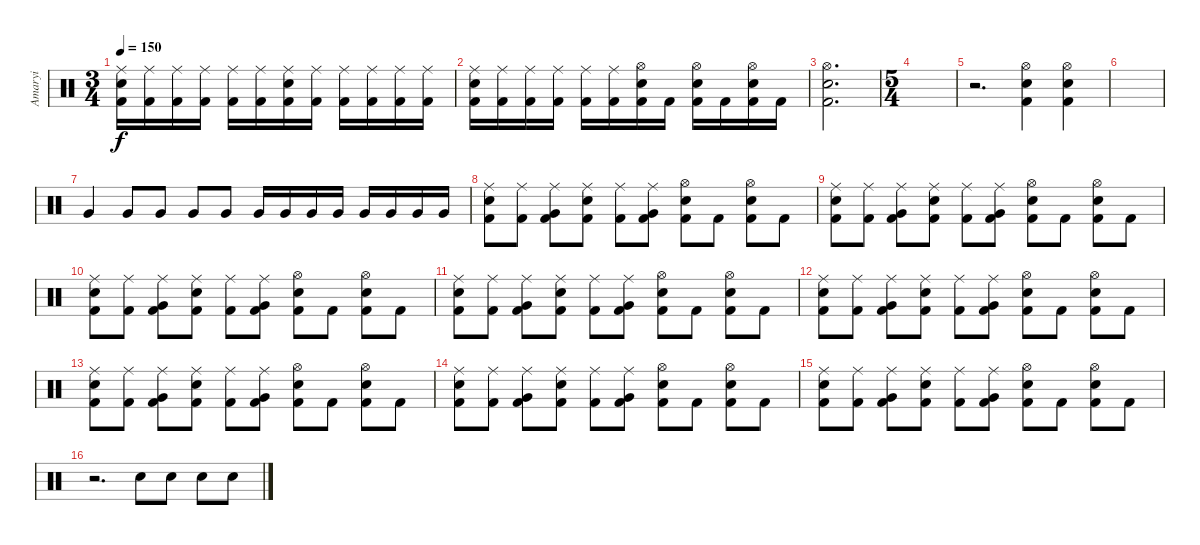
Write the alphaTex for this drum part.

\track ("Amaryi" "Amaryi") {instrument percussion}
\staff {score}
\articulation defaults
\ts (3 4)
\tempo 150
\clef neutral
\ks c
("Ride (middle)" "Snare (hit) 2" "Kick (hit) 2").16{dy f} ("Ride (middle)" "Kick (hit) 2").16 ("Ride (middle)" "Kick (hit) 2").16 ("Ride (middle)" "Kick (hit) 2").16 ("Ride (middle)" "Kick (hit) 2").16 ("Ride (middle)" "Kick (hit) 2").16 ("Ride (middle)" "Snare (hit) 2" "Kick (hit) 2").16 ("Ride (middle)" "Kick (hit) 2").16 ("Ride (middle)" "Kick (hit) 2").16 ("Ride (middle)" "Kick (hit) 2").16 ("Ride (middle)" "Kick (hit) 2").16 ("Ride (middle)" "Kick (hit) 2").16 |
("Ride (middle)" "Snare (hit) 2" "Kick (hit) 2").16 ("Ride (middle)" "Kick (hit) 2").16 ("Ride (middle)" "Kick (hit) 2").16 ("Ride (middle)" "Kick (hit) 2").16 ("Ride (middle)" "Kick (hit) 2").16 ("Ride (middle)" "Kick (hit) 2").16 ("Hi-Hat (open)" "Snare (hit) 2" "Kick (hit) 2").16 "Kick (hit) 2".16 ("Hi-Hat (open)" "Snare (hit) 2" "Kick (hit) 2").16 "Kick (hit) 2".16 ("Hi-Hat (open)" "Snare (hit) 2" "Kick (hit) 2").16 "Kick (hit) 2".16 |
("Hi-Hat (open)" "Snare (hit) 2" "Kick (hit) 2").2{d} |
\ts (5 4)
|
r.2{d} ("Hi-Hat (open)" "Snare (hit) 2" "Kick (hit) 2").4 ("Hi-Hat (open)" "Snare (hit) 2" "Kick (hit) 2").4 |
|
"Very Low Tom (hit)".4 "Very Low Tom (hit)".8 "Very Low Tom (hit)".8 "Very Low Tom (hit)".8 "Very Low Tom (hit)".8 "Very Low Tom (hit)".16 "Very Low Tom (hit)".16 "Very Low Tom (hit)".16 "Very Low Tom (hit)".16 "Very Low Tom (hit)".16 "Very Low Tom (hit)".16 "Very Low Tom (hit)".16 "Very Low Tom (hit)".16 |
("Ride (middle)" "Snare (hit) 2" "Kick (hit) 2").8 ("Ride (middle)" "Kick (hit) 2").8 ("Ride (middle)" "Very Low Tom (hit)" "Kick (hit) 2").8 ("Ride (middle)" "Snare (hit) 2" "Kick (hit) 2").8 ("Ride (middle)" "Kick (hit) 2").8 ("Ride (middle)" "Very Low Tom (hit)" "Kick (hit) 2").8 ("Hi-Hat (open)" "Snare (hit) 2" "Kick (hit) 2").8 "Kick (hit) 2".8 ("Hi-Hat (open)" "Snare (hit) 2" "Kick (hit) 2").8 "Kick (hit) 2".8 |
("Ride (middle)" "Snare (hit) 2" "Kick (hit) 2").8 ("Ride (middle)" "Kick (hit) 2").8 ("Ride (middle)" "Very Low Tom (hit)" "Kick (hit) 2").8 ("Ride (middle)" "Snare (hit) 2" "Kick (hit) 2").8 ("Ride (middle)" "Kick (hit) 2").8 ("Ride (middle)" "Very Low Tom (hit)" "Kick (hit) 2").8 ("Hi-Hat (open)" "Snare (hit) 2" "Kick (hit) 2").8 "Kick (hit) 2".8 ("Hi-Hat (open)" "Snare (hit) 2" "Kick (hit) 2").8 "Kick (hit) 2".8 |
("Ride (middle)" "Snare (hit) 2" "Kick (hit) 2").8 ("Ride (middle)" "Kick (hit) 2").8 ("Ride (middle)" "Very Low Tom (hit)" "Kick (hit) 2").8 ("Ride (middle)" "Snare (hit) 2" "Kick (hit) 2").8 ("Ride (middle)" "Kick (hit) 2").8 ("Ride (middle)" "Very Low Tom (hit)" "Kick (hit) 2").8 ("Hi-Hat (open)" "Snare (hit) 2" "Kick (hit) 2").8 "Kick (hit) 2".8 ("Hi-Hat (open)" "Snare (hit) 2" "Kick (hit) 2").8 "Kick (hit) 2".8 |
("Ride (middle)" "Snare (hit) 2" "Kick (hit) 2").8 ("Ride (middle)" "Kick (hit) 2").8 ("Ride (middle)" "Very Low Tom (hit)" "Kick (hit) 2").8 ("Ride (middle)" "Snare (hit) 2" "Kick (hit) 2").8 ("Ride (middle)" "Kick (hit) 2").8 ("Ride (middle)" "Very Low Tom (hit)" "Kick (hit) 2").8 ("Hi-Hat (open)" "Snare (hit) 2" "Kick (hit) 2").8 "Kick (hit) 2".8 ("Hi-Hat (open)" "Snare (hit) 2" "Kick (hit) 2").8 "Kick (hit) 2".8 |
("Ride (middle)" "Snare (hit) 2" "Kick (hit) 2").8 ("Ride (middle)" "Kick (hit) 2").8 ("Ride (middle)" "Very Low Tom (hit)" "Kick (hit) 2").8 ("Ride (middle)" "Snare (hit) 2" "Kick (hit) 2").8 ("Ride (middle)" "Kick (hit) 2").8 ("Ride (middle)" "Very Low Tom (hit)" "Kick (hit) 2").8 ("Hi-Hat (open)" "Snare (hit) 2" "Kick (hit) 2").8 "Kick (hit) 2".8 ("Hi-Hat (open)" "Snare (hit) 2" "Kick (hit) 2").8 "Kick (hit) 2".8 |
("Ride (middle)" "Snare (hit) 2" "Kick (hit) 2").8 ("Ride (middle)" "Kick (hit) 2").8 ("Ride (middle)" "Very Low Tom (hit)" "Kick (hit) 2").8 ("Ride (middle)" "Snare (hit) 2" "Kick (hit) 2").8 ("Ride (middle)" "Kick (hit) 2").8 ("Ride (middle)" "Very Low Tom (hit)" "Kick (hit) 2").8 ("Hi-Hat (open)" "Snare (hit) 2" "Kick (hit) 2").8 "Kick (hit) 2".8 ("Hi-Hat (open)" "Snare (hit) 2" "Kick (hit) 2").8 "Kick (hit) 2".8 |
("Ride (middle)" "Snare (hit) 2" "Kick (hit) 2").8 ("Ride (middle)" "Kick (hit) 2").8 ("Ride (middle)" "Very Low Tom (hit)" "Kick (hit) 2").8 ("Ride (middle)" "Snare (hit) 2" "Kick (hit) 2").8 ("Ride (middle)" "Kick (hit) 2").8 ("Ride (middle)" "Very Low Tom (hit)" "Kick (hit) 2").8 ("Hi-Hat (open)" "Snare (hit) 2" "Kick (hit) 2").8 "Kick (hit) 2".8 ("Hi-Hat (open)" "Snare (hit) 2" "Kick (hit) 2").8 "Kick (hit) 2".8 |
("Ride (middle)" "Snare (hit) 2" "Kick (hit) 2").8 ("Ride (middle)" "Kick (hit) 2").8 ("Ride (middle)" "Very Low Tom (hit)" "Kick (hit) 2").8 ("Ride (middle)" "Snare (hit) 2" "Kick (hit) 2").8 ("Ride (middle)" "Kick (hit) 2").8 ("Ride (middle)" "Very Low Tom (hit)" "Kick (hit) 2").8 ("Hi-Hat (open)" "Snare (hit) 2" "Kick (hit) 2").8 "Kick (hit) 2".8 ("Hi-Hat (open)" "Snare (hit) 2" "Kick (hit) 2").8 "Kick (hit) 2".8 |
r.2{d} "Snare (hit) 2".8 "Snare (hit) 2".8 "Snare (hit) 2".8 "Snare (hit) 2".8
